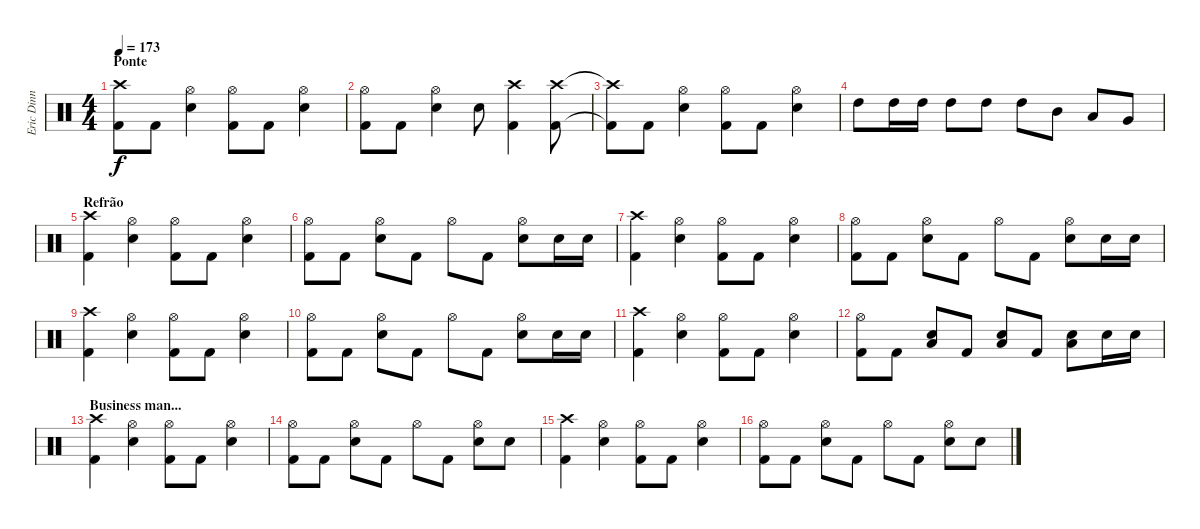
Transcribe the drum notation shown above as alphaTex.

\track ("Eric Dinn" "Eric Dinn") {instrument percussion}
\staff {score}
\articulation defaults
\ts (4 4)
\section ("" "Ponte")
\tempo 173
\clef neutral
\ks c
("Crash high (hit)" "Kick (hit) 2").8{dy f} "Kick (hit) 2".8 ("Hi-Hat (open)" "Snare (hit) 2").4 ("Hi-Hat (open)" "Kick (hit) 2").8 "Kick (hit) 2".8 ("Hi-Hat (open)" "Snare (hit) 2").4 |
("Hi-Hat (open)" "Kick (hit) 2").8 "Kick (hit) 2".8 ("Hi-Hat (open)" "Snare (hit) 2").4 "Snare (hit) 2".8 ("Crash high (hit)" "Kick (hit) 2").4 ("Crash high (hit)" "Kick (hit) 2").8 |
("Crash high (hit)"{t} "Kick (hit) 2"{t}).8 "Kick (hit) 2".8 ("Hi-Hat (open)" "Snare (hit) 2").4 ("Hi-Hat (open)" "Kick (hit) 2").8 "Kick (hit) 2".8 ("Hi-Hat (open)" "Snare (hit) 2").4 |
"High Tom (hit)".8 "High Tom (hit)".16 "High Tom (hit)".16 "High Tom (hit)".8 "High Tom (hit)".8 "High Tom (hit)".8 "Mid Tom (hit)".8 "Low Tom (hit)".8 "Very Low Tom (hit)".8 |
\section ("" "Refrão")
("Crash high (hit)" "Kick (hit) 2").4 ("Hi-Hat (open)" "Snare (hit) 2").4 ("Hi-Hat (open)" "Kick (hit) 2").8 "Kick (hit) 2".8 ("Hi-Hat (open)" "Snare (hit) 2").4 |
("Hi-Hat (open)" "Kick (hit) 2").8 "Kick (hit) 2".8 ("Hi-Hat (open)" "Snare (hit) 2").8 "Kick (hit) 2".8 "Hi-Hat (open)".8 "Kick (hit) 2".8 ("Hi-Hat (open)" "Snare (hit) 2").8 "Snare (hit) 2".16 "Snare (hit) 2".16 |
("Crash high (hit)" "Kick (hit) 2").4 ("Hi-Hat (open)" "Snare (hit) 2").4 ("Hi-Hat (open)" "Kick (hit) 2").8 "Kick (hit) 2".8 ("Hi-Hat (open)" "Snare (hit) 2").4 |
("Hi-Hat (open)" "Kick (hit) 2").8 "Kick (hit) 2".8 ("Hi-Hat (open)" "Snare (hit) 2").8 "Kick (hit) 2".8 "Hi-Hat (open)".8 "Kick (hit) 2".8 ("Hi-Hat (open)" "Snare (hit) 2").8 "Snare (hit) 2".16 "Snare (hit) 2".16 |
("Crash high (hit)" "Kick (hit) 2").4 ("Hi-Hat (open)" "Snare (hit) 2").4 ("Hi-Hat (open)" "Kick (hit) 2").8 "Kick (hit) 2".8 ("Hi-Hat (open)" "Snare (hit) 2").4 |
("Hi-Hat (open)" "Kick (hit) 2").8 "Kick (hit) 2".8 ("Hi-Hat (open)" "Snare (hit) 2").8 "Kick (hit) 2".8 "Hi-Hat (open)".8 "Kick (hit) 2".8 ("Hi-Hat (open)" "Snare (hit) 2").8 "Snare (hit) 2".16 "Snare (hit) 2".16 |
("Crash high (hit)" "Kick (hit) 2").4 ("Hi-Hat (open)" "Snare (hit) 2").4 ("Hi-Hat (open)" "Kick (hit) 2").8 "Kick (hit) 2".8 ("Hi-Hat (open)" "Snare (hit) 2").4 |
("Hi-Hat (open)" "Kick (hit) 2").8 "Kick (hit) 2".8 ("Low Tom (hit)" "Snare (hit) 2").8 "Kick (hit) 2".8 ("Low Tom (hit)" "Snare (hit) 2").8 "Kick (hit) 2".8 ("Low Tom (hit)" "Snare (hit) 2").8 "Snare (hit) 2".16 "Snare (hit) 2".16 |
\section ("" "Business man...")
("Crash high (hit)" "Kick (hit) 2").4 ("Hi-Hat (open)" "Snare (hit) 2").4 ("Hi-Hat (open)" "Kick (hit) 2").8 "Kick (hit) 2".8 ("Hi-Hat (open)" "Snare (hit) 2").4 |
("Hi-Hat (open)" "Kick (hit) 2").8 "Kick (hit) 2".8 ("Hi-Hat (open)" "Snare (hit) 2").8 "Kick (hit) 2".8 "Hi-Hat (open)".8 "Kick (hit) 2".8 ("Hi-Hat (open)" "Snare (hit) 2").8 "Snare (hit) 2".8 |
("Crash high (hit)" "Kick (hit) 2").4 ("Hi-Hat (open)" "Snare (hit) 2").4 ("Hi-Hat (open)" "Kick (hit) 2").8 "Kick (hit) 2".8 ("Hi-Hat (open)" "Snare (hit) 2").4 |
("Hi-Hat (open)" "Kick (hit) 2").8 "Kick (hit) 2".8 ("Hi-Hat (open)" "Snare (hit) 2").8 "Kick (hit) 2".8 "Hi-Hat (open)".8 "Kick (hit) 2".8 ("Hi-Hat (open)" "Snare (hit) 2").8 "Snare (hit) 2".8
